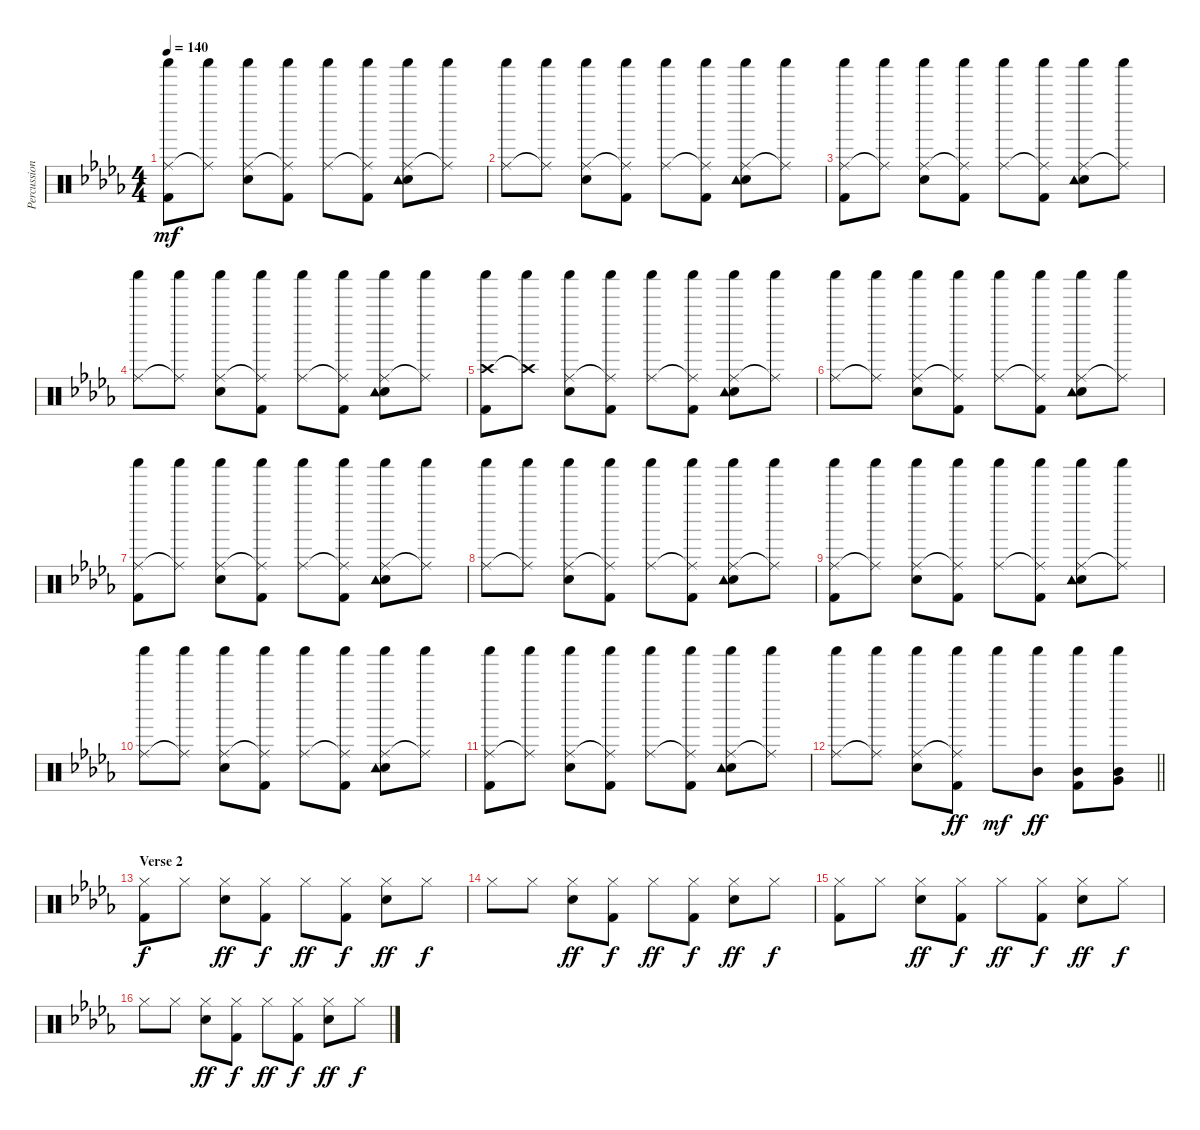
\track ("Percussion" "Percussion") {instrument percussion}
\staff {score}
\articulation defaults
\ts (4 4)
\tempo 140
\clef neutral
\ks db
("Ride (middle)" "Shaker (hit)" "Kick (hit) 2").8{dy mf} ("Ride (middle)"{t} "Shaker (hit)").8 ("Ride (middle)" "Shaker (hit)" "Snare (hit) 2").8 ("Ride (middle)"{t} "Shaker (hit)" "Kick (hit) 2").8 ("Ride (middle)" "Shaker (hit)").8 ("Ride (middle)"{t} "Shaker (hit)" "Kick (hit) 2").8 ("Ride (middle)" "Shaker (hit)" "Snare (hit) 2" "Tambourine (hit)").8 ("Ride (middle)"{t} "Shaker (hit)").8 |
("Ride (middle)" "Shaker (hit)").8 ("Ride (middle)"{t} "Shaker (hit)").8 ("Ride (middle)" "Shaker (hit)" "Snare (hit) 2").8 ("Ride (middle)"{t} "Shaker (hit)" "Kick (hit) 2").8 ("Ride (middle)" "Shaker (hit)").8 ("Ride (middle)"{t} "Shaker (hit)" "Kick (hit) 2").8 ("Ride (middle)" "Shaker (hit)" "Snare (hit) 2" "Tambourine (hit)").8 ("Ride (middle)"{t} "Shaker (hit)").8 |
("Ride (middle)" "Shaker (hit)" "Kick (hit) 2").8 ("Ride (middle)"{t} "Shaker (hit)").8 ("Ride (middle)" "Shaker (hit)" "Snare (hit) 2").8 ("Ride (middle)"{t} "Shaker (hit)" "Kick (hit) 2").8 ("Ride (middle)" "Shaker (hit)").8 ("Ride (middle)"{t} "Shaker (hit)" "Kick (hit) 2").8 ("Ride (middle)" "Shaker (hit)" "Snare (hit) 2" "Tambourine (hit)").8 ("Ride (middle)"{t} "Shaker (hit)").8 |
("Ride (middle)" "Shaker (hit)").8 ("Ride (middle)"{t} "Shaker (hit)").8 ("Ride (middle)" "Shaker (hit)" "Snare (hit) 2").8 ("Ride (middle)"{t} "Shaker (hit)" "Kick (hit) 2").8 ("Ride (middle)" "Shaker (hit)").8 ("Ride (middle)"{t} "Shaker (hit)" "Kick (hit) 2").8 ("Ride (middle)" "Shaker (hit)" "Snare (hit) 2" "Tambourine (hit)").8 ("Ride (middle)"{t} "Shaker (hit)").8 |
("Crash high (hit)" "Shaker (hit)" "Kick (hit) 2").8 ("Crash high (hit)"{t} "Shaker (hit)").8 ("Ride (middle)" "Shaker (hit)" "Snare (hit) 2").8 ("Ride (middle)"{t} "Shaker (hit)" "Kick (hit) 2").8 ("Ride (middle)" "Shaker (hit)").8 ("Ride (middle)"{t} "Shaker (hit)" "Kick (hit) 2").8 ("Ride (middle)" "Shaker (hit)" "Snare (hit) 2" "Tambourine (hit)").8 ("Ride (middle)"{t} "Shaker (hit)").8 |
("Ride (middle)" "Shaker (hit)").8 ("Ride (middle)"{t} "Shaker (hit)").8 ("Ride (middle)" "Shaker (hit)" "Snare (hit) 2").8 ("Ride (middle)"{t} "Shaker (hit)" "Kick (hit) 2").8 ("Ride (middle)" "Shaker (hit)").8 ("Ride (middle)"{t} "Shaker (hit)" "Kick (hit) 2").8 ("Ride (middle)" "Shaker (hit)" "Snare (hit) 2" "Tambourine (hit)").8 ("Ride (middle)"{t} "Shaker (hit)").8 |
("Ride (middle)" "Shaker (hit)" "Kick (hit) 2").8 ("Ride (middle)"{t} "Shaker (hit)").8 ("Ride (middle)" "Shaker (hit)" "Snare (hit) 2").8 ("Ride (middle)"{t} "Shaker (hit)" "Kick (hit) 2").8 ("Ride (middle)" "Shaker (hit)").8 ("Ride (middle)"{t} "Shaker (hit)" "Kick (hit) 2").8 ("Ride (middle)" "Shaker (hit)" "Snare (hit) 2" "Tambourine (hit)").8 ("Ride (middle)"{t} "Shaker (hit)").8 |
("Ride (middle)" "Shaker (hit)").8 ("Ride (middle)"{t} "Shaker (hit)").8 ("Ride (middle)" "Shaker (hit)" "Snare (hit) 2").8 ("Ride (middle)"{t} "Shaker (hit)" "Kick (hit) 2").8 ("Ride (middle)" "Shaker (hit)").8 ("Ride (middle)"{t} "Shaker (hit)" "Kick (hit) 2").8 ("Ride (middle)" "Shaker (hit)" "Snare (hit) 2" "Tambourine (hit)").8 ("Ride (middle)"{t} "Shaker (hit)").8 |
("Ride (middle)" "Shaker (hit)" "Kick (hit) 2").8 ("Ride (middle)"{t} "Shaker (hit)").8 ("Ride (middle)" "Shaker (hit)" "Snare (hit) 2").8 ("Ride (middle)"{t} "Shaker (hit)" "Kick (hit) 2").8 ("Ride (middle)" "Shaker (hit)").8 ("Ride (middle)"{t} "Shaker (hit)" "Kick (hit) 2").8 ("Ride (middle)" "Shaker (hit)" "Snare (hit) 2" "Tambourine (hit)").8 ("Ride (middle)"{t} "Shaker (hit)").8 |
("Ride (middle)" "Shaker (hit)").8 ("Ride (middle)"{t} "Shaker (hit)").8 ("Ride (middle)" "Shaker (hit)" "Snare (hit) 2").8 ("Ride (middle)"{t} "Shaker (hit)" "Kick (hit) 2").8 ("Ride (middle)" "Shaker (hit)").8 ("Ride (middle)"{t} "Shaker (hit)" "Kick (hit) 2").8 ("Ride (middle)" "Shaker (hit)" "Snare (hit) 2" "Tambourine (hit)").8 ("Ride (middle)"{t} "Shaker (hit)").8 |
("Ride (middle)" "Shaker (hit)" "Kick (hit) 2").8 ("Ride (middle)"{t} "Shaker (hit)").8 ("Ride (middle)" "Shaker (hit)" "Snare (hit) 2").8 ("Ride (middle)"{t} "Shaker (hit)" "Kick (hit) 2").8 ("Ride (middle)" "Shaker (hit)").8 ("Ride (middle)"{t} "Shaker (hit)" "Kick (hit) 2").8 ("Ride (middle)" "Shaker (hit)" "Snare (hit) 2" "Tambourine (hit)").8 ("Ride (middle)"{t} "Shaker (hit)").8 |
\barLineRight lightlight
("Ride (middle)" "Shaker (hit)").8 ("Ride (middle)"{t} "Shaker (hit)").8 ("Ride (middle)" "Shaker (hit)" "Snare (hit) 2").8 ("Ride (middle)"{t} "Shaker (hit)" "Kick (hit) 2").8{dy ff} "Shaker (hit)".8{dy mf} ("Shaker (hit)" "Mid Tom (hit)").8{dy ff} ("Shaker (hit)" "Mid Tom (hit)" "Kick (hit) 2").8 ("Shaker (hit)" "Very Low Tom (hit)" "Mid Tom (hit)").8 |
\section ("" "Verse 2")
("Hi-Hat (closed)" "Kick (hit) 2").8{dy f} "Hi-Hat (closed)".8 ("Hi-Hat (closed)" "Snare (hit) 2").8{dy ff} ("Hi-Hat (closed)" "Kick (hit) 2").8{dy f} "Hi-Hat (closed)".8{dy ff} ("Hi-Hat (closed)" "Kick (hit) 2").8{dy f} ("Hi-Hat (closed)" "Snare (hit) 2").8{dy ff} "Hi-Hat (closed)".8{dy f} |
"Hi-Hat (closed)".8 "Hi-Hat (closed)".8 ("Hi-Hat (closed)" "Snare (hit) 2").8{dy ff} ("Hi-Hat (closed)" "Kick (hit) 2").8{dy f} "Hi-Hat (closed)".8{dy ff} ("Hi-Hat (closed)" "Kick (hit) 2").8{dy f} ("Hi-Hat (closed)" "Snare (hit) 2").8{dy ff} "Hi-Hat (closed)".8{dy f} |
("Hi-Hat (closed)" "Kick (hit) 2").8 "Hi-Hat (closed)".8 ("Hi-Hat (closed)" "Snare (hit) 2").8{dy ff} ("Hi-Hat (closed)" "Kick (hit) 2").8{dy f} "Hi-Hat (closed)".8{dy ff} ("Hi-Hat (closed)" "Kick (hit) 2").8{dy f} ("Hi-Hat (closed)" "Snare (hit) 2").8{dy ff} "Hi-Hat (closed)".8{dy f} |
"Hi-Hat (closed)".8 "Hi-Hat (closed)".8 ("Hi-Hat (closed)" "Snare (hit) 2").8{dy ff} ("Hi-Hat (closed)" "Kick (hit) 2").8{dy f} "Hi-Hat (closed)".8{dy ff} ("Hi-Hat (closed)" "Kick (hit) 2").8{dy f} ("Hi-Hat (closed)" "Snare (hit) 2").8{dy ff} "Hi-Hat (closed)".8{dy f}
